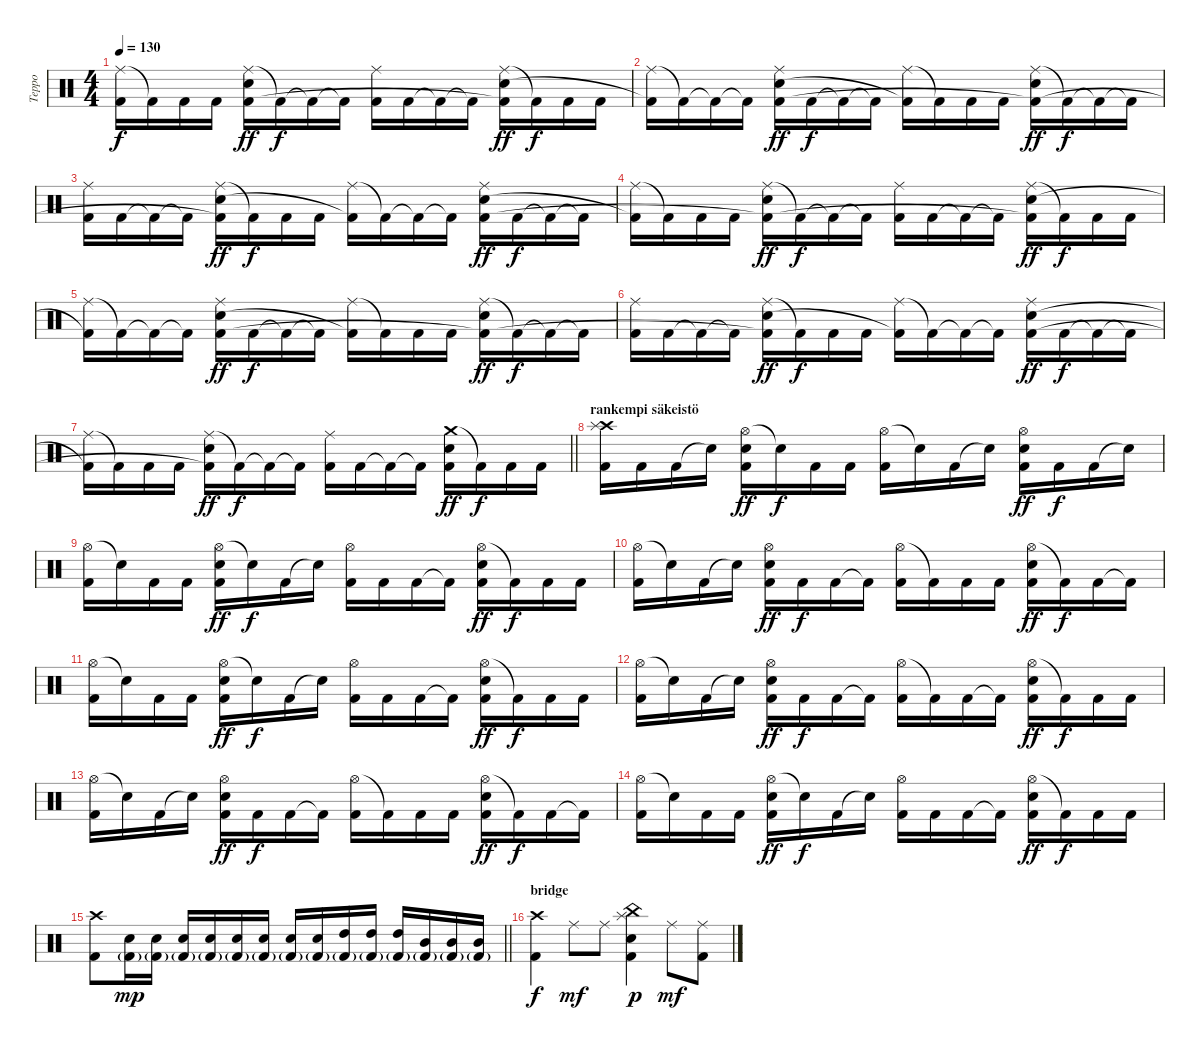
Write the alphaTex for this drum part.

\track ("Teppo" "Teppo") {instrument percussion}
\staff {score}
\articulation defaults
\ts (4 4)
\tempo 130
\clef neutral
\ks c
("Ride (middle)" "Kick (hit) 2"{t}).16{dy f} "Kick (hit) 2"{t}.16 "Kick (hit) 2".16 "Kick (hit) 2".16 ("Ride (middle)" "Electric Snare (hit)" "Kick (hit) 2"{t}).16{dy ff} "Kick (hit) 2"{t}.16{dy f} "Kick (hit) 2"{t}.16 "Kick (hit) 2"{t}.16 ("Ride (middle)" "Kick (hit) 2").16 "Kick (hit) 2".16 "Kick (hit) 2"{t}.16 "Kick (hit) 2"{t}.16 ("Ride (middle)" "Electric Snare (hit)" "Kick (hit) 2"{t}).16{dy ff} "Kick (hit) 2"{t}.16{dy f} "Kick (hit) 2".16 "Kick (hit) 2".16 |
("Ride (middle)" "Kick (hit) 2"{t}).16 "Kick (hit) 2"{t}.16 "Kick (hit) 2"{t}.16 "Kick (hit) 2"{t}.16 ("Ride (middle)" "Electric Snare (hit)" "Kick (hit) 2").16{dy ff} "Kick (hit) 2".16{dy f} "Kick (hit) 2"{t}.16 "Kick (hit) 2"{t}.16 ("Ride (middle)" "Kick (hit) 2"{t}).16 "Kick (hit) 2"{t}.16 "Kick (hit) 2".16 "Kick (hit) 2".16 ("Ride (middle)" "Electric Snare (hit)" "Kick (hit) 2"{t}).16{dy ff} "Kick (hit) 2"{t}.16{dy f} "Kick (hit) 2"{t}.16 "Kick (hit) 2"{t}.16 |
("Ride (middle)" "Kick (hit) 2").16 "Kick (hit) 2".16 "Kick (hit) 2"{t}.16 "Kick (hit) 2"{t}.16 ("Ride (middle)" "Electric Snare (hit)" "Kick (hit) 2"{t}).16{dy ff} "Kick (hit) 2"{t}.16{dy f} "Kick (hit) 2".16 "Kick (hit) 2".16 ("Ride (middle)" "Kick (hit) 2"{t}).16 "Kick (hit) 2"{t}.16 "Kick (hit) 2"{t}.16 "Kick (hit) 2"{t}.16 ("Ride (middle)" "Electric Snare (hit)" "Kick (hit) 2").16{dy ff} "Kick (hit) 2".16{dy f} "Kick (hit) 2"{t}.16 "Kick (hit) 2"{t}.16 |
("Ride (middle)" "Kick (hit) 2"{t}).16 "Kick (hit) 2"{t}.16 "Kick (hit) 2".16 "Kick (hit) 2".16 ("Ride (middle)" "Electric Snare (hit)" "Kick (hit) 2"{t}).16{dy ff} "Kick (hit) 2"{t}.16{dy f} "Kick (hit) 2"{t}.16 "Kick (hit) 2"{t}.16 ("Ride (middle)" "Kick (hit) 2").16 "Kick (hit) 2".16 "Kick (hit) 2"{t}.16 "Kick (hit) 2"{t}.16 ("Ride (middle)" "Electric Snare (hit)" "Kick (hit) 2"{t}).16{dy ff} "Kick (hit) 2"{t}.16{dy f} "Kick (hit) 2".16 "Kick (hit) 2".16 |
("Ride (middle)" "Kick (hit) 2"{t}).16 "Kick (hit) 2"{t}.16 "Kick (hit) 2"{t}.16 "Kick (hit) 2"{t}.16 ("Ride (middle)" "Electric Snare (hit)" "Kick (hit) 2").16{dy ff} "Kick (hit) 2".16{dy f} "Kick (hit) 2"{t}.16 "Kick (hit) 2"{t}.16 ("Ride (middle)" "Kick (hit) 2"{t}).16 "Kick (hit) 2"{t}.16 "Kick (hit) 2".16 "Kick (hit) 2".16 ("Ride (middle)" "Electric Snare (hit)" "Kick (hit) 2"{t}).16{dy ff} "Kick (hit) 2"{t}.16{dy f} "Kick (hit) 2"{t}.16 "Kick (hit) 2"{t}.16 |
("Ride (middle)" "Kick (hit) 2").16 "Kick (hit) 2".16 "Kick (hit) 2"{t}.16 "Kick (hit) 2"{t}.16 ("Ride (middle)" "Electric Snare (hit)" "Kick (hit) 2"{t}).16{dy ff} "Kick (hit) 2"{t}.16{dy f} "Kick (hit) 2".16 "Kick (hit) 2".16 ("Ride (middle)" "Kick (hit) 2"{t}).16 "Kick (hit) 2"{t}.16 "Kick (hit) 2"{t}.16 "Kick (hit) 2"{t}.16 ("Ride (middle)" "Electric Snare (hit)" "Kick (hit) 2").16{dy ff} "Kick (hit) 2".16{dy f} "Kick (hit) 2"{t}.16 "Kick (hit) 2"{t}.16 |
\barLineRight lightlight
("Ride (middle)" "Kick (hit) 2"{t}).16 "Kick (hit) 2"{t}.16 "Kick (hit) 2".16 "Kick (hit) 2".16 ("Ride (middle)" "Electric Snare (hit)" "Kick (hit) 2"{t}).16{dy ff} "Kick (hit) 2"{t}.16{dy f} "Kick (hit) 2"{t}.16 "Kick (hit) 2"{t}.16 ("Ride (middle)" "Kick (hit) 2").16 "Kick (hit) 2".16 "Kick (hit) 2"{t}.16 "Kick (hit) 2"{t}.16 ("Crash medium (hit)" "Electric Snare (hit)" "Kick (hit) 2").16{dy ff} "Kick (hit) 2"{t}.16{dy f} "Kick (hit) 2".16 "Kick (hit) 2".16 |
\section ("" "rankempi säkeistö")
("Crash high (hit)" "Splash (hit)" "Kick (hit) 2").16 "Kick (hit) 2".16 "Kick (hit) 2".16 "Snare (hit)"{t}.16 ("Hi-Hat (open)" "Electric Snare (hit)" "Kick (hit) 2").16{dy ff} "Snare (hit)"{t}.16{dy f} "Kick (hit) 2".16 "Kick (hit) 2".16 ("Hi-Hat (open)" "Kick (hit) 2").16 "Snare (hit)"{t}.16 "Kick (hit) 2".16 "Snare (hit)"{t}.16 ("Hi-Hat (open)" "Electric Snare (hit)" "Kick (hit) 2").16{dy ff} "Kick (hit) 2".16{dy f} "Kick (hit) 2".16 "Snare (hit)"{t}.16 |
("Hi-Hat (open)" "Kick (hit) 2").16 "Snare (hit)"{t}.16 "Kick (hit) 2".16 "Kick (hit) 2".16 ("Hi-Hat (open)" "Electric Snare (hit)" "Kick (hit) 2").16{dy ff} "Snare (hit)"{t}.16{dy f} "Kick (hit) 2".16 "Snare (hit)"{t}.16 ("Hi-Hat (open)" "Kick (hit) 2").16 "Kick (hit) 2".16 "Kick (hit) 2".16 "Kick (hit) 2"{t}.16 ("Hi-Hat (open)" "Electric Snare (hit)" "Kick (hit) 2").16{dy ff} "Kick (hit) 2"{t}.16{dy f} "Kick (hit) 2".16 "Kick (hit) 2".16 |
("Hi-Hat (open)" "Kick (hit) 2").16 "Snare (hit)"{t}.16 "Kick (hit) 2".16 "Snare (hit)"{t}.16 ("Hi-Hat (open)" "Electric Snare (hit)" "Kick (hit) 2").16{dy ff} "Kick (hit) 2".16{dy f} "Kick (hit) 2".16 "Kick (hit) 2"{t}.16 ("Hi-Hat (open)" "Kick (hit) 2").16 "Kick (hit) 2"{t}.16 "Kick (hit) 2".16 "Kick (hit) 2".16 ("Hi-Hat (open)" "Electric Snare (hit)" "Kick (hit) 2").16{dy ff} "Kick (hit) 2"{t}.16{dy f} "Kick (hit) 2".16 "Kick (hit) 2"{t}.16 |
("Hi-Hat (open)" "Kick (hit) 2").16 "Snare (hit)"{t}.16 "Kick (hit) 2".16 "Kick (hit) 2".16 ("Hi-Hat (open)" "Electric Snare (hit)" "Kick (hit) 2").16{dy ff} "Snare (hit)"{t}.16{dy f} "Kick (hit) 2".16 "Snare (hit)"{t}.16 ("Hi-Hat (open)" "Kick (hit) 2").16 "Kick (hit) 2".16 "Kick (hit) 2".16 "Kick (hit) 2"{t}.16 ("Hi-Hat (open)" "Electric Snare (hit)" "Kick (hit) 2").16{dy ff} "Kick (hit) 2"{t}.16{dy f} "Kick (hit) 2".16 "Kick (hit) 2".16 |
("Hi-Hat (open)" "Kick (hit) 2").16 "Snare (hit)"{t}.16 "Kick (hit) 2".16 "Snare (hit)"{t}.16 ("Hi-Hat (open)" "Electric Snare (hit)" "Kick (hit) 2").16{dy ff} "Kick (hit) 2".16{dy f} "Kick (hit) 2".16 "Kick (hit) 2"{t}.16 ("Hi-Hat (open)" "Kick (hit) 2").16 "Kick (hit) 2"{t}.16 "Kick (hit) 2".16 "Kick (hit) 2"{t}.16 ("Hi-Hat (open)" "Electric Snare (hit)" "Kick (hit) 2").16{dy ff} "Kick (hit) 2"{t}.16{dy f} "Kick (hit) 2".16 "Kick (hit) 2".16 |
("Hi-Hat (open)" "Kick (hit) 2").16 "Snare (hit)"{t}.16 "Kick (hit) 2".16 "Snare (hit)"{t}.16 ("Hi-Hat (open)" "Electric Snare (hit)" "Kick (hit) 2").16{dy ff} "Kick (hit) 2".16{dy f} "Kick (hit) 2".16 "Kick (hit) 2"{t}.16 ("Hi-Hat (open)" "Kick (hit) 2").16 "Kick (hit) 2"{t}.16 "Kick (hit) 2".16 "Kick (hit) 2".16 ("Hi-Hat (open)" "Electric Snare (hit)" "Kick (hit) 2").16{dy ff} "Kick (hit) 2"{t}.16{dy f} "Kick (hit) 2".16 "Kick (hit) 2"{t}.16 |
("Hi-Hat (open)" "Kick (hit) 2").16 "Snare (hit)"{t}.16 "Kick (hit) 2".16 "Kick (hit) 2".16 ("Hi-Hat (open)" "Electric Snare (hit)" "Kick (hit) 2").16{dy ff} "Snare (hit)"{t}.16{dy f} "Kick (hit) 2".16 "Snare (hit)"{t}.16 ("Hi-Hat (open)" "Kick (hit) 2").16 "Kick (hit) 2".16 "Kick (hit) 2".16 "Kick (hit) 2"{t}.16 ("Hi-Hat (open)" "Electric Snare (hit)" "Kick (hit) 2").16{dy ff} "Kick (hit) 2"{t}.16{dy f} "Kick (hit) 2".16 "Kick (hit) 2".16 |
\barLineRight lightlight
("Crash high (hit)" "Kick (hit) 2").8 ("Electric Snare (hit)" "Kick (hit) 2"{g}).16{dy mp} ("Electric Snare (hit)" "Kick (hit) 2"{g}).16 ("Electric Snare (hit)" "Kick (hit) 2"{g}).16 ("Electric Snare (hit)" "Kick (hit) 2"{g}).16 ("Electric Snare (hit)" "Kick (hit) 2"{g}).16 ("Electric Snare (hit)" "Kick (hit) 2"{g}).16 ("Electric Snare (hit)" "Kick (hit) 2"{g}).16 ("Electric Snare (hit)" "Kick (hit) 2"{g}).16 ("High Tom (hit)" "Kick (hit) 2"{g}).16 ("High Tom (hit)" "Kick (hit) 2"{g}).16 ("High Tom (hit)" "Kick (hit) 2"{g}).16 ("Mid Tom (hit)" "Kick (hit) 2"{g}).16 ("Mid Tom (hit)" "Kick (hit) 2"{g}).16 ("Mid Tom (hit)" "Kick (hit) 2"{g}).16 |
\section ("" "bridge")
("Crash high (hit)" "Kick (hit) 2").4{dy f} "Ride (middle)".8{dy mf} "Ride (middle)".8 ("Splash (hit)" "China (hit)" "Electric Snare (hit)" "Kick (hit) 2").4{dy p} "Ride (middle)".8{dy mf} ("Ride (middle)" "Kick (hit) 2").8
